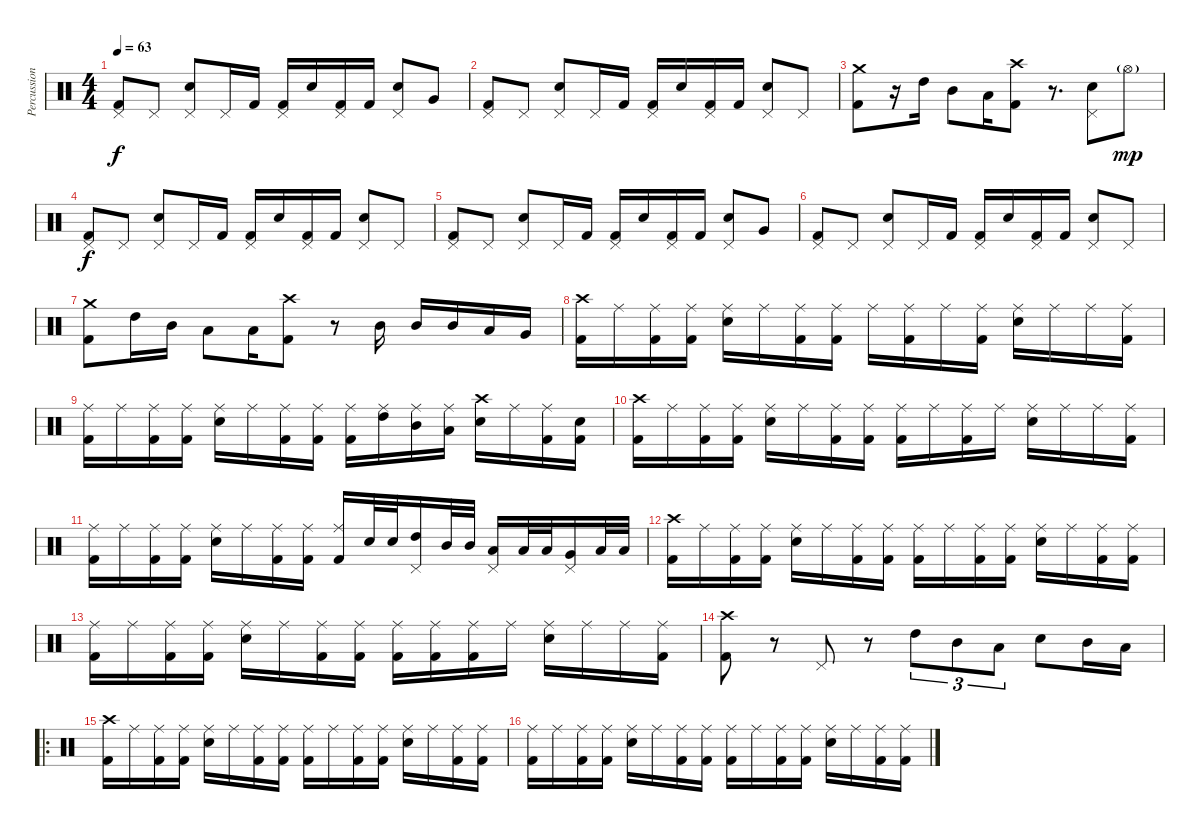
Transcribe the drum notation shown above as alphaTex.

\track ("Percussion" "Percussion") {instrument percussion}
\staff {score}
\articulation defaults
\ts (4 4)
\tempo 63
\clef neutral
\ks c
("Pedal Hi-Hat (hit)" "Kick (hit) 2").8{dy f} "Pedal Hi-Hat (hit)".8 ("Pedal Hi-Hat (hit)" "Electric Snare (hit)").8 "Pedal Hi-Hat (hit)".16 "Kick (hit) 2".16 ("Pedal Hi-Hat (hit)" "Kick (hit) 2").16 "Electric Snare (hit)".16 ("Pedal Hi-Hat (hit)" "Kick (hit) 2").16 "Kick (hit) 2".16 ("Pedal Hi-Hat (hit)" "Electric Snare (hit)").8 "Very Low Tom (hit)".8 |
("Pedal Hi-Hat (hit)" "Kick (hit) 2").8 "Pedal Hi-Hat (hit)".8 ("Pedal Hi-Hat (hit)" "Electric Snare (hit)").8 "Pedal Hi-Hat (hit)".16 "Kick (hit) 2".16 ("Pedal Hi-Hat (hit)" "Kick (hit) 2").16 "Electric Snare (hit)".16 ("Pedal Hi-Hat (hit)" "Kick (hit) 2").16 "Kick (hit) 2".16 ("Pedal Hi-Hat (hit)" "Electric Snare (hit)").8 "Pedal Hi-Hat (hit)".8 |
("Crash medium (hit)" "Kick (hit) 2").8 r.16 "High Tom (hit)".16 "Mid Tom (hit)".8 "Low Tom (hit)".16 ("Crash high (hit)" "Kick (hit) 2").8 r.8{d} ("Pedal Hi-Hat (hit)" "Electric Snare (hit)").8 "Hi-Hat (open)"{g}.8{dy mp} |
("Pedal Hi-Hat (hit)" "Kick (hit) 2").8{dy f} "Pedal Hi-Hat (hit)".8 ("Pedal Hi-Hat (hit)" "Electric Snare (hit)").8 "Pedal Hi-Hat (hit)".16 "Kick (hit) 2".16 ("Pedal Hi-Hat (hit)" "Kick (hit) 2").16 "Electric Snare (hit)".16 ("Pedal Hi-Hat (hit)" "Kick (hit) 2").16 "Kick (hit) 2".16 ("Pedal Hi-Hat (hit)" "Electric Snare (hit)").8 "Pedal Hi-Hat (hit)".8 |
("Pedal Hi-Hat (hit)" "Kick (hit) 2").8 "Pedal Hi-Hat (hit)".8 ("Pedal Hi-Hat (hit)" "Electric Snare (hit)").8 "Pedal Hi-Hat (hit)".16 "Kick (hit) 2".16 ("Pedal Hi-Hat (hit)" "Kick (hit) 2").16 "Electric Snare (hit)".16 ("Pedal Hi-Hat (hit)" "Kick (hit) 2").16 "Kick (hit) 2".16 ("Pedal Hi-Hat (hit)" "Electric Snare (hit)").8 "Very Low Tom (hit)".8 |
("Pedal Hi-Hat (hit)" "Kick (hit) 2").8 "Pedal Hi-Hat (hit)".8 ("Pedal Hi-Hat (hit)" "Electric Snare (hit)").8 "Pedal Hi-Hat (hit)".16 "Kick (hit) 2".16 ("Pedal Hi-Hat (hit)" "Kick (hit) 2").16 "Electric Snare (hit)".16 ("Pedal Hi-Hat (hit)" "Kick (hit) 2").16 "Kick (hit) 2".16 ("Pedal Hi-Hat (hit)" "Electric Snare (hit)").8 "Pedal Hi-Hat (hit)".8 |
("Crash medium (hit)" "Kick (hit) 2").8 "High Tom (hit)".16 "Mid Tom (hit)".16 "Low Tom (hit)".8 "Low Tom (hit)".16 ("Crash high (hit)" "Kick (hit) 2").8 r.8 "Mid Tom (hit)".16 "Mid Tom (hit)".16 "Mid Tom (hit)".16 "Low Tom (hit)".16 "Very Low Tom (hit)".16 |
("Crash high (hit)" "Kick (hit) 2").16 "Ride (middle)".16 ("Ride (middle)" "Kick (hit) 2").16 ("Ride (middle)" "Kick (hit) 2").16 ("Ride (middle)" "Electric Snare (hit)").16 "Ride (middle)".16 ("Ride (middle)" "Kick (hit) 2").16 ("Ride (middle)" "Kick (hit) 2").16 "Ride (middle)".16 ("Ride (middle)" "Kick (hit) 2").16 "Ride (middle)".16 ("Ride (middle)" "Kick (hit) 2").16 ("Ride (middle)" "Electric Snare (hit)").16 "Ride (middle)".16 "Ride (middle)".16 ("Ride (middle)" "Kick (hit) 2").16 |
("Ride (middle)" "Kick (hit) 2").16 "Ride (middle)".16 ("Ride (middle)" "Kick (hit) 2").16 ("Ride (middle)" "Kick (hit) 2").16 ("Ride (middle)" "Electric Snare (hit)").16 "Ride (middle)".16 ("Ride (middle)" "Kick (hit) 2").16 ("Ride (middle)" "Kick (hit) 2").16 ("Ride (middle)" "Kick (hit) 2").16 ("Ride (middle)" "High Tom (hit)").16 ("Ride (middle)" "Mid Tom (hit)").16 ("Ride (middle)" "Low Tom (hit)").16 ("Crash high (hit)" "Electric Snare (hit)").16 "Ride (middle)".16 ("Ride (middle)" "Kick (hit) 2").16 ("Snare (hit)" "Kick (hit) 2").16 |
("Crash high (hit)" "Kick (hit) 2").16 "Ride (middle)".16 ("Ride (middle)" "Kick (hit) 2").16 ("Ride (middle)" "Kick (hit) 2").16 ("Ride (middle)" "Electric Snare (hit)").16 "Ride (middle)".16 ("Ride (middle)" "Kick (hit) 2").16 ("Ride (middle)" "Kick (hit) 2").16 ("Ride (middle)" "Kick (hit) 2").16 "Ride (middle)".16 ("Ride (middle)" "Kick (hit) 2").16 "Ride (middle)".16 ("Ride (middle)" "Electric Snare (hit)").16 "Ride (middle)".16 "Ride (middle)".16 ("Ride (middle)" "Kick (hit) 2").16 |
("Ride (middle)" "Kick (hit) 2").16 "Ride (middle)".16 ("Ride (middle)" "Kick (hit) 2").16 ("Ride (middle)" "Kick (hit) 2").16 ("Ride (middle)" "Electric Snare (hit)").16 "Ride (middle)".16 ("Ride (middle)" "Kick (hit) 2").16 ("Ride (middle)" "Kick (hit) 2").16 ("Ride (middle)" "Kick (hit) 2").16 "Electric Snare (hit)".32 "Electric Snare (hit)".32 ("Pedal Hi-Hat (hit)" "High Tom (hit)").16 "Mid Tom (hit)".32 "Mid Tom (hit)".32 ("Pedal Hi-Hat (hit)" "Low Tom (hit)").16 "Low Tom (hit)".32 "Low Tom (hit)".32 ("Pedal Hi-Hat (hit)" "Very Low Tom (hit)").16 "Low Tom (hit)".32 "Low Tom (hit)".32 |
("Crash high (hit)" "Kick (hit) 2").16 "Ride (middle)".16 ("Ride (middle)" "Kick (hit) 2").16 ("Ride (middle)" "Kick (hit) 2").16 ("Ride (middle)" "Electric Snare (hit)").16 "Ride (middle)".16 ("Ride (middle)" "Kick (hit) 2").16 ("Ride (middle)" "Kick (hit) 2").16 ("Ride (middle)" "Kick (hit) 2").16 "Ride (middle)".16 ("Ride (middle)" "Kick (hit) 2").16 ("Ride (middle)" "Kick (hit) 2").16 ("Ride (middle)" "Electric Snare (hit)").16 "Ride (middle)".16 ("Ride (middle)" "Kick (hit) 2").16 ("Ride (middle)" "Kick (hit) 2").16 |
("Ride (middle)" "Kick (hit) 2").16 "Ride (middle)".16 ("Ride (middle)" "Kick (hit) 2").16 ("Ride (middle)" "Kick (hit) 2").16 ("Ride (middle)" "Electric Snare (hit)").16 "Ride (middle)".16 ("Ride (middle)" "Kick (hit) 2").16 ("Ride (middle)" "Kick (hit) 2").16 ("Ride (middle)" "Kick (hit) 2").16 ("Ride (middle)" "Kick (hit) 2").16 ("Ride (middle)" "Kick (hit) 2").16 "Ride (middle)".16 ("Ride (middle)" "Electric Snare (hit)").16 "Ride (middle)".16 "Ride (middle)".16 ("Ride (middle)" "Kick (hit) 2").16 |
("Crash high (hit)" "Kick (hit) 2").8 r.8 "Pedal Hi-Hat (hit)".8 r.8 "High Tom (hit)".8{tu (3 2)} "Mid Tom (hit)".8{tu (3 2)} "Low Tom (hit)".8{tu (3 2)} "Electric Snare (hit)".8 "Mid Tom (hit)".16 "Low Tom (hit)".16 |
\ro
("Crash high (hit)" "Kick (hit) 2").16 "Ride (middle)".16 ("Ride (middle)" "Kick (hit) 2").16 ("Ride (middle)" "Kick (hit) 2").16 ("Ride (middle)" "Electric Snare (hit)").16 "Ride (middle)".16 ("Ride (middle)" "Kick (hit) 2").16 ("Ride (middle)" "Kick (hit) 2").16 ("Ride (middle)" "Kick (hit) 2").16 "Ride (middle)".16 ("Ride (middle)" "Kick (hit) 2").16 ("Ride (middle)" "Kick (hit) 2").16 ("Ride (middle)" "Electric Snare (hit)").16 "Ride (middle)".16 ("Ride (middle)" "Kick (hit) 2").16 ("Ride (middle)" "Kick (hit) 2").16 |
("Ride (middle)" "Kick (hit) 2").16 "Ride (middle)".16 ("Ride (middle)" "Kick (hit) 2").16 ("Ride (middle)" "Kick (hit) 2").16 ("Ride (middle)" "Electric Snare (hit)").16 "Ride (middle)".16 ("Ride (middle)" "Kick (hit) 2").16 ("Ride (middle)" "Kick (hit) 2").16 ("Ride (middle)" "Kick (hit) 2").16 "Ride (middle)".16 ("Ride (middle)" "Kick (hit) 2").16 ("Ride (middle)" "Kick (hit) 2").16 ("Ride (middle)" "Electric Snare (hit)").16 "Ride (middle)".16 ("Ride (middle)" "Kick (hit) 2").16 ("Ride (middle)" "Kick (hit) 2").16
